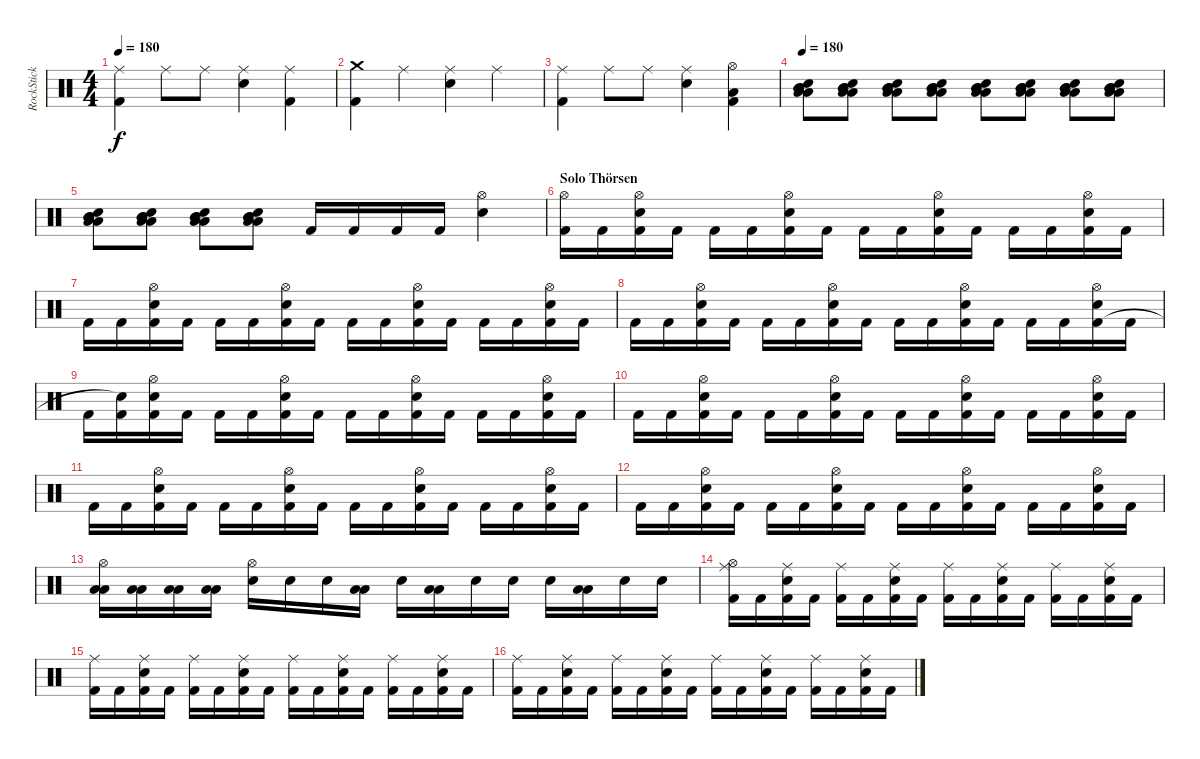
\track ("RockStick" "RockStick") {instrument percussion}
\staff {score}
\articulation defaults
\ts (4 4)
\tempo 180
\clef neutral
\ks c
("Kick (hit) 2" "Ride (middle)").4{dy f} "Ride (middle)".8 "Ride (middle)".8 ("Electric Snare (hit)" "Ride (middle)").4 ("Kick (hit) 2" "Ride (middle)").4 |
("Kick (hit) 2" "Crash medium (hit)").4 "Ride (middle)".4 ("Electric Snare (hit)" "Ride (middle)").4 "Ride (middle)".4 |
("Kick (hit) 2" "Ride (middle)").4 "Ride (middle)".8 "Ride (middle)".8 ("Electric Snare (hit)" "Ride (middle)").4 ("Kick (hit) 2" "Low Tom (hit)" "Hi-Hat (open)").4 |
\tempo 180
("Low Floor Tom (hit)" "Low Floor Tom (hit)" "Mid Tom (hit)" "Mid Tom (hit)" "Electric Snare (hit)").8{volume 3} ("Low Floor Tom (hit)" "Low Floor Tom (hit)" "Mid Tom (hit)" "Mid Tom (hit)" "Electric Snare (hit)").8{volume 15} ("Low Floor Tom (hit)" "Low Floor Tom (hit)" "Mid Tom (hit)" "Mid Tom (hit)" "Electric Snare (hit)").8 ("Low Floor Tom (hit)" "Low Floor Tom (hit)" "Mid Tom (hit)" "Mid Tom (hit)" "Electric Snare (hit)").8 ("Low Floor Tom (hit)" "Low Floor Tom (hit)" "Mid Tom (hit)" "Mid Tom (hit)" "Electric Snare (hit)").8 ("Low Floor Tom (hit)" "Low Floor Tom (hit)" "Mid Tom (hit)" "Mid Tom (hit)" "Electric Snare (hit)").8 ("Low Floor Tom (hit)" "Low Floor Tom (hit)" "Mid Tom (hit)" "Mid Tom (hit)" "Electric Snare (hit)").8 ("Low Floor Tom (hit)" "Low Floor Tom (hit)" "Mid Tom (hit)" "Mid Tom (hit)" "Electric Snare (hit)").8 |
("Low Floor Tom (hit)" "Low Floor Tom (hit)" "Mid Tom (hit)" "Mid Tom (hit)" "Electric Snare (hit)").8 ("Low Floor Tom (hit)" "Low Floor Tom (hit)" "Mid Tom (hit)" "Mid Tom (hit)" "Electric Snare (hit)").8 ("Low Floor Tom (hit)" "Low Floor Tom (hit)" "Mid Tom (hit)" "Mid Tom (hit)" "Electric Snare (hit)").8 ("Low Floor Tom (hit)" "Low Floor Tom (hit)" "Mid Tom (hit)" "Mid Tom (hit)" "Electric Snare (hit)").8 "Kick (hit) 2".16 "Kick (hit) 2".16 "Kick (hit) 2".16 "Kick (hit) 2".16 ("Electric Snare (hit)" "Hi-Hat (open)").4 |
\section ("" "Solo Thörsen")
("Kick (hit) 2" "Hi-Hat (open)").16 "Kick (hit) 2".16 ("Electric Snare (hit)" "Kick (hit) 2" "Hi-Hat (open)").16 "Kick (hit) 2".16 "Kick (hit) 2".16 "Kick (hit) 2".16 ("Electric Snare (hit)" "Kick (hit) 2" "Hi-Hat (open)").16 "Kick (hit) 2".16 "Kick (hit) 2".16 "Kick (hit) 2".16 ("Electric Snare (hit)" "Kick (hit) 2" "Hi-Hat (open)").16 "Kick (hit) 2".16 "Kick (hit) 2".16 "Kick (hit) 2".16 ("Electric Snare (hit)" "Kick (hit) 2" "Hi-Hat (open)").16 "Kick (hit) 2".16 |
"Kick (hit) 2".16 "Kick (hit) 2".16 ("Electric Snare (hit)" "Kick (hit) 2" "Hi-Hat (open)").16 "Kick (hit) 2".16 "Kick (hit) 2".16 "Kick (hit) 2".16 ("Electric Snare (hit)" "Kick (hit) 2" "Hi-Hat (open)").16 "Kick (hit) 2".16 "Kick (hit) 2".16 "Kick (hit) 2".16 ("Electric Snare (hit)" "Kick (hit) 2" "Hi-Hat (open)").16 "Kick (hit) 2".16 "Kick (hit) 2".16 "Kick (hit) 2".16 ("Electric Snare (hit)" "Kick (hit) 2" "Hi-Hat (open)").16 "Kick (hit) 2".16 |
"Kick (hit) 2".16 "Kick (hit) 2".16 ("Electric Snare (hit)" "Kick (hit) 2" "Hi-Hat (open)").16 "Kick (hit) 2".16 "Kick (hit) 2".16 "Kick (hit) 2".16 ("Electric Snare (hit)" "Kick (hit) 2" "Hi-Hat (open)").16 "Kick (hit) 2".16 "Kick (hit) 2".16 "Kick (hit) 2".16 ("Electric Snare (hit)" "Kick (hit) 2" "Hi-Hat (open)").16 "Kick (hit) 2".16 "Kick (hit) 2".16 "Kick (hit) 2".16 ("Electric Snare (hit)" "Kick (hit) 2" "Hi-Hat (open)").16 "Kick (hit) 2".16 |
"Kick (hit) 2".16 ("Kick (hit) 2" "Snare (hit)"{t}).16 ("Electric Snare (hit)" "Kick (hit) 2" "Hi-Hat (open)").16 "Kick (hit) 2".16 "Kick (hit) 2".16 "Kick (hit) 2".16 ("Electric Snare (hit)" "Kick (hit) 2" "Hi-Hat (open)").16 "Kick (hit) 2".16 "Kick (hit) 2".16 "Kick (hit) 2".16 ("Electric Snare (hit)" "Kick (hit) 2" "Hi-Hat (open)").16 "Kick (hit) 2".16 "Kick (hit) 2".16 "Kick (hit) 2".16 ("Electric Snare (hit)" "Kick (hit) 2" "Hi-Hat (open)").16 "Kick (hit) 2".16 |
"Kick (hit) 2".16 "Kick (hit) 2".16 ("Electric Snare (hit)" "Kick (hit) 2" "Hi-Hat (open)").16 "Kick (hit) 2".16 "Kick (hit) 2".16 "Kick (hit) 2".16 ("Electric Snare (hit)" "Kick (hit) 2" "Hi-Hat (open)").16 "Kick (hit) 2".16 "Kick (hit) 2".16 "Kick (hit) 2".16 ("Electric Snare (hit)" "Kick (hit) 2" "Hi-Hat (open)").16 "Kick (hit) 2".16 "Kick (hit) 2".16 "Kick (hit) 2".16 ("Electric Snare (hit)" "Kick (hit) 2" "Hi-Hat (open)").16 "Kick (hit) 2".16 |
"Kick (hit) 2".16 "Kick (hit) 2".16 ("Electric Snare (hit)" "Kick (hit) 2" "Hi-Hat (open)").16 "Kick (hit) 2".16 "Kick (hit) 2".16 "Kick (hit) 2".16 ("Electric Snare (hit)" "Kick (hit) 2" "Hi-Hat (open)").16 "Kick (hit) 2".16 "Kick (hit) 2".16 "Kick (hit) 2".16 ("Electric Snare (hit)" "Kick (hit) 2" "Hi-Hat (open)").16 "Kick (hit) 2".16 "Kick (hit) 2".16 "Kick (hit) 2".16 ("Electric Snare (hit)" "Kick (hit) 2" "Hi-Hat (open)").16 "Kick (hit) 2".16 |
"Kick (hit) 2".16 "Kick (hit) 2".16 ("Electric Snare (hit)" "Kick (hit) 2" "Hi-Hat (open)").16 "Kick (hit) 2".16 "Kick (hit) 2".16 "Kick (hit) 2".16 ("Electric Snare (hit)" "Kick (hit) 2" "Hi-Hat (open)").16 "Kick (hit) 2".16 "Kick (hit) 2".16 "Kick (hit) 2".16 ("Electric Snare (hit)" "Kick (hit) 2" "Hi-Hat (open)").16 "Kick (hit) 2".16 "Kick (hit) 2".16 "Kick (hit) 2".16 ("Electric Snare (hit)" "Kick (hit) 2" "Hi-Hat (open)").16 "Kick (hit) 2".16 |
("Low Tom (hit)" "Low Tom (hit)" "Hi-Hat (open)").16 ("Low Tom (hit)" "Low Tom (hit)").16 ("Low Tom (hit)" "Low Tom (hit)").16 ("Low Tom (hit)" "Low Tom (hit)").16 ("Electric Snare (hit)" "Hi-Hat (open)").16 "Electric Snare (hit)".16 "Electric Snare (hit)".16 ("Low Tom (hit)" "Low Tom (hit)").16 "Electric Snare (hit)".16 ("Low Tom (hit)" "Low Tom (hit)").16 "Electric Snare (hit)".16 "Electric Snare (hit)".16 "Electric Snare (hit)".16 ("Low Tom (hit)" "Low Tom (hit)").16 "Electric Snare (hit)".16 "Electric Snare (hit)".16 |
("Hi-Hat (open)" "Kick (hit) 2" "Ride (middle)").16 "Kick (hit) 2".16 ("Electric Snare (hit)" "Kick (hit) 2" "Ride (middle)").16 "Kick (hit) 2".16 ("Kick (hit) 2" "Ride (middle)").16 "Kick (hit) 2".16 ("Electric Snare (hit)" "Kick (hit) 2" "Ride (middle)").16 "Kick (hit) 2".16 ("Kick (hit) 2" "Ride (middle)").16 "Kick (hit) 2".16 ("Electric Snare (hit)" "Kick (hit) 2" "Ride (middle)").16 "Kick (hit) 2".16 ("Kick (hit) 2" "Ride (middle)").16 "Kick (hit) 2".16 ("Electric Snare (hit)" "Kick (hit) 2" "Ride (middle)").16 "Kick (hit) 2".16 |
("Kick (hit) 2" "Ride (middle)").16 "Kick (hit) 2".16 ("Electric Snare (hit)" "Kick (hit) 2" "Ride (middle)").16 "Kick (hit) 2".16 ("Kick (hit) 2" "Ride (middle)").16 "Kick (hit) 2".16 ("Electric Snare (hit)" "Kick (hit) 2" "Ride (middle)").16 "Kick (hit) 2".16 ("Kick (hit) 2" "Ride (middle)").16 "Kick (hit) 2".16 ("Electric Snare (hit)" "Kick (hit) 2" "Ride (middle)").16 "Kick (hit) 2".16 ("Kick (hit) 2" "Ride (middle)").16 "Kick (hit) 2".16 ("Electric Snare (hit)" "Kick (hit) 2" "Ride (middle)").16 "Kick (hit) 2".16 |
("Kick (hit) 2" "Ride (middle)").16 "Kick (hit) 2".16 ("Electric Snare (hit)" "Kick (hit) 2" "Ride (middle)").16 "Kick (hit) 2".16 ("Kick (hit) 2" "Ride (middle)").16 "Kick (hit) 2".16 ("Electric Snare (hit)" "Kick (hit) 2" "Ride (middle)").16 "Kick (hit) 2".16 ("Kick (hit) 2" "Ride (middle)").16 "Kick (hit) 2".16 ("Electric Snare (hit)" "Kick (hit) 2" "Ride (middle)").16 "Kick (hit) 2".16 ("Kick (hit) 2" "Ride (middle)").16 "Kick (hit) 2".16 ("Electric Snare (hit)" "Kick (hit) 2" "Ride (middle)").16 "Kick (hit) 2".16
